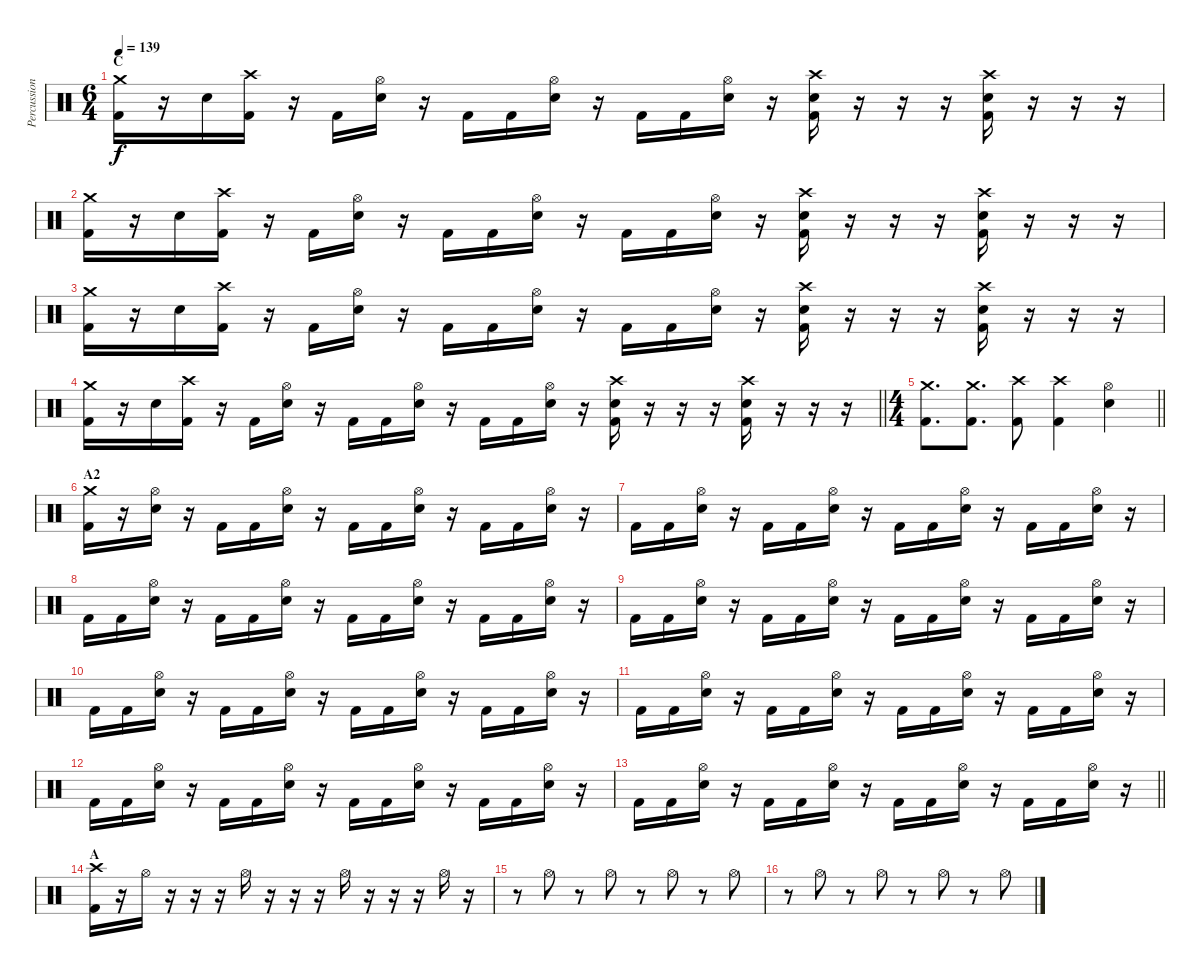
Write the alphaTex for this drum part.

\track ("Percussion" "Percussion") {instrument percussion}
\staff {score}
\articulation defaults
\ts (6 4)
\section ("" "C")
\tempo 139
\clef neutral
\ks c
("Crash medium (hit)" "Kick (hit) 2").16{dy f} r.16 "Electric Snare (hit)".16 ("Crash high (hit)" "Kick (hit) 2").16 r.16 "Kick (hit) 2".16 ("Hi-Hat (open)" "Electric Snare (hit)").16 r.16 "Kick (hit) 2".16 "Kick (hit) 2".16 ("Hi-Hat (open)" "Electric Snare (hit)").16 r.16 "Kick (hit) 2".16 "Kick (hit) 2".16 ("Hi-Hat (open)" "Electric Snare (hit)").16 r.16 ("Crash high (hit)" "Electric Snare (hit)" "Kick (hit) 2").16 r.16 r.16 r.16 ("Crash high (hit)" "Electric Snare (hit)" "Kick (hit) 2").16 r.16 r.16 r.16 |
("Crash medium (hit)" "Kick (hit) 2").16 r.16 "Electric Snare (hit)".16 ("Crash high (hit)" "Kick (hit) 2").16 r.16 "Kick (hit) 2".16 ("Hi-Hat (open)" "Electric Snare (hit)").16 r.16 "Kick (hit) 2".16 "Kick (hit) 2".16 ("Hi-Hat (open)" "Electric Snare (hit)").16 r.16 "Kick (hit) 2".16 "Kick (hit) 2".16 ("Hi-Hat (open)" "Electric Snare (hit)").16 r.16 ("Crash high (hit)" "Electric Snare (hit)" "Kick (hit) 2").16 r.16 r.16 r.16 ("Crash high (hit)" "Electric Snare (hit)" "Kick (hit) 2").16 r.16 r.16 r.16 |
("Crash medium (hit)" "Kick (hit) 2").16 r.16 "Electric Snare (hit)".16 ("Crash high (hit)" "Kick (hit) 2").16 r.16 "Kick (hit) 2".16 ("Hi-Hat (open)" "Electric Snare (hit)").16 r.16 "Kick (hit) 2".16 "Kick (hit) 2".16 ("Hi-Hat (open)" "Electric Snare (hit)").16 r.16 "Kick (hit) 2".16 "Kick (hit) 2".16 ("Hi-Hat (open)" "Electric Snare (hit)").16 r.16 ("Crash high (hit)" "Electric Snare (hit)" "Kick (hit) 2").16 r.16 r.16 r.16 ("Crash high (hit)" "Electric Snare (hit)" "Kick (hit) 2").16 r.16 r.16 r.16 |
\barLineRight lightlight
("Crash medium (hit)" "Kick (hit) 2").16 r.16 "Electric Snare (hit)".16 ("Crash high (hit)" "Kick (hit) 2").16 r.16 "Kick (hit) 2".16 ("Hi-Hat (open)" "Electric Snare (hit)").16 r.16 "Kick (hit) 2".16 "Kick (hit) 2".16 ("Hi-Hat (open)" "Electric Snare (hit)").16 r.16 "Kick (hit) 2".16 "Kick (hit) 2".16 ("Hi-Hat (open)" "Electric Snare (hit)").16 r.16 ("Crash high (hit)" "Electric Snare (hit)" "Kick (hit) 2").16 r.16 r.16 r.16 ("Crash high (hit)" "Electric Snare (hit)" "Kick (hit) 2").16 r.16 r.16 r.16 |
\ts (4 4)
\barLineRight lightlight
("Crash medium (hit)" "Kick (hit) 2").8{d} ("Crash medium (hit)" "Kick (hit) 2").8{d} ("Crash high (hit)" "Kick (hit) 2").8 ("Crash high (hit)" "Kick (hit) 2").4 ("Hi-Hat (open)" "Electric Snare (hit)").4 |
\section ("" "A2")
("Crash medium (hit)" "Kick (hit) 2").16 r.16 ("Hi-Hat (open)" "Electric Snare (hit)").16 r.16 "Kick (hit) 2".16 "Kick (hit) 2".16 ("Hi-Hat (open)" "Electric Snare (hit)").16 r.16 "Kick (hit) 2".16 "Kick (hit) 2".16 ("Hi-Hat (open)" "Electric Snare (hit)").16 r.16 "Kick (hit) 2".16 "Kick (hit) 2".16 ("Hi-Hat (open)" "Electric Snare (hit)").16 r.16 |
"Kick (hit) 2".16 "Kick (hit) 2".16 ("Hi-Hat (open)" "Electric Snare (hit)").16 r.16 "Kick (hit) 2".16 "Kick (hit) 2".16 ("Hi-Hat (open)" "Electric Snare (hit)").16 r.16 "Kick (hit) 2".16 "Kick (hit) 2".16 ("Hi-Hat (open)" "Electric Snare (hit)").16 r.16 "Kick (hit) 2".16 "Kick (hit) 2".16 ("Hi-Hat (open)" "Electric Snare (hit)").16 r.16 |
"Kick (hit) 2".16 "Kick (hit) 2".16 ("Hi-Hat (open)" "Electric Snare (hit)").16 r.16 "Kick (hit) 2".16 "Kick (hit) 2".16 ("Hi-Hat (open)" "Electric Snare (hit)").16 r.16 "Kick (hit) 2".16 "Kick (hit) 2".16 ("Hi-Hat (open)" "Electric Snare (hit)").16 r.16 "Kick (hit) 2".16 "Kick (hit) 2".16 ("Hi-Hat (open)" "Electric Snare (hit)").16 r.16 |
"Kick (hit) 2".16 "Kick (hit) 2".16 ("Hi-Hat (open)" "Electric Snare (hit)").16 r.16 "Kick (hit) 2".16 "Kick (hit) 2".16 ("Hi-Hat (open)" "Electric Snare (hit)").16 r.16 "Kick (hit) 2".16 "Kick (hit) 2".16 ("Hi-Hat (open)" "Electric Snare (hit)").16 r.16 "Kick (hit) 2".16 "Kick (hit) 2".16 ("Hi-Hat (open)" "Electric Snare (hit)").16 r.16 |
"Kick (hit) 2".16 "Kick (hit) 2".16 ("Hi-Hat (open)" "Electric Snare (hit)").16 r.16 "Kick (hit) 2".16 "Kick (hit) 2".16 ("Hi-Hat (open)" "Electric Snare (hit)").16 r.16 "Kick (hit) 2".16 "Kick (hit) 2".16 ("Hi-Hat (open)" "Electric Snare (hit)").16 r.16 "Kick (hit) 2".16 "Kick (hit) 2".16 ("Hi-Hat (open)" "Electric Snare (hit)").16 r.16 |
"Kick (hit) 2".16 "Kick (hit) 2".16 ("Hi-Hat (open)" "Electric Snare (hit)").16 r.16 "Kick (hit) 2".16 "Kick (hit) 2".16 ("Hi-Hat (open)" "Electric Snare (hit)").16 r.16 "Kick (hit) 2".16 "Kick (hit) 2".16 ("Hi-Hat (open)" "Electric Snare (hit)").16 r.16 "Kick (hit) 2".16 "Kick (hit) 2".16 ("Hi-Hat (open)" "Electric Snare (hit)").16 r.16 |
"Kick (hit) 2".16 "Kick (hit) 2".16 ("Hi-Hat (open)" "Electric Snare (hit)").16 r.16 "Kick (hit) 2".16 "Kick (hit) 2".16 ("Hi-Hat (open)" "Electric Snare (hit)").16 r.16 "Kick (hit) 2".16 "Kick (hit) 2".16 ("Hi-Hat (open)" "Electric Snare (hit)").16 r.16 "Kick (hit) 2".16 "Kick (hit) 2".16 ("Hi-Hat (open)" "Electric Snare (hit)").16 r.16 |
\barLineRight lightlight "Kick (hit) 2".16 "Kick (hit) 2".16
("Hi-Hat (open)" "Electric Snare (hit)").16 r.16 "Kick (hit) 2".16 "Kick (hit) 2".16 ("Hi-Hat (open)" "Electric Snare (hit)").16 r.16 "Kick (hit) 2".16 "Kick (hit) 2".16 ("Hi-Hat (open)" "Electric Snare (hit)").16 r.16 "Kick (hit) 2".16 "Kick (hit) 2".16 ("Hi-Hat (open)" "Electric Snare (hit)").16 r.16 |
\section ("" "A")
("Crash high (hit)" "Kick (hit) 2").16 r.16 "Hi-Hat (open)".16 r.16 r.16 r.16 "Hi-Hat (open)".16 r.16 r.16 r.16 "Hi-Hat (open)".16 r.16 r.16 r.16 "Hi-Hat (open)".16 r.16 |
r.8 "Hi-Hat (open)".8 r.8 "Hi-Hat (open)".8 r.8 "Hi-Hat (open)".8 r.8 "Hi-Hat (open)".8 |
r.8 "Hi-Hat (open)".8 r.8 "Hi-Hat (open)".8 r.8 "Hi-Hat (open)".8 r.8 "Hi-Hat (open)".8
